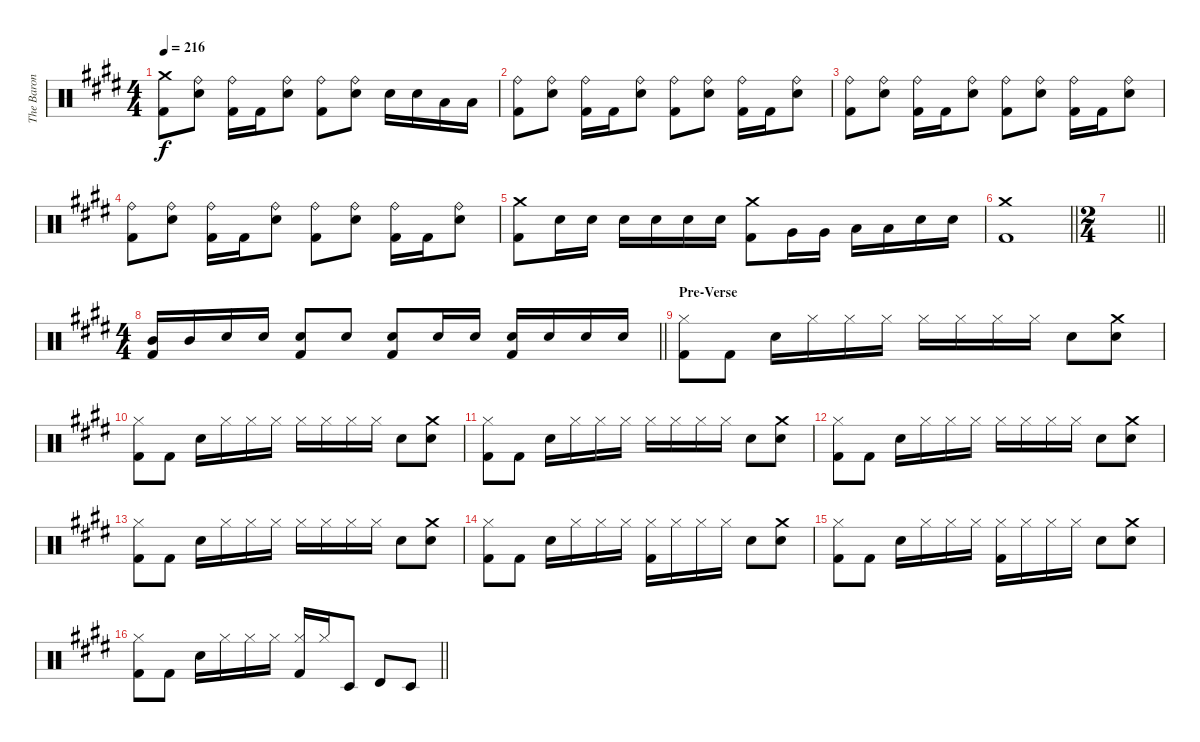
\track ("The Baron Von Tito" "The Baron ") {instrument percussion}
\staff {score}
\articulation defaults
\ts (4 4)
\tempo 216
\clef neutral
\ks e
("Crash medium (hit)" "Kick (hit) 2").8{dy f} ("Ride (bell)" "Electric Snare (hit)").8 ("Ride (bell)" "Kick (hit) 2").16 "Kick (hit) 2".16 ("Ride (bell)" "Electric Snare (hit)").8 ("Ride (bell)" "Kick (hit) 2").8 ("Ride (bell)" "Electric Snare (hit)").8 "Electric Snare (hit)".16 "Electric Snare (hit)".16 "Low Tom (hit)".16 "Low Tom (hit)".16 |
("Ride (bell)" "Kick (hit) 2").8 ("Ride (bell)" "Electric Snare (hit)").8 ("Ride (bell)" "Kick (hit) 2").16 "Kick (hit) 2".16 ("Ride (bell)" "Electric Snare (hit)").8 ("Ride (bell)" "Kick (hit) 2").8 ("Ride (bell)" "Electric Snare (hit)").8 ("Ride (bell)" "Kick (hit) 2").16 "Kick (hit) 2".16 ("Ride (bell)" "Electric Snare (hit)").8 |
("Ride (bell)" "Kick (hit) 2").8 ("Ride (bell)" "Electric Snare (hit)").8 ("Ride (bell)" "Kick (hit) 2").16 "Kick (hit) 2".16 ("Ride (bell)" "Electric Snare (hit)").8 ("Ride (bell)" "Kick (hit) 2").8 ("Ride (bell)" "Electric Snare (hit)").8 ("Ride (bell)" "Kick (hit) 2").16 "Kick (hit) 2".16 ("Ride (bell)" "Electric Snare (hit)").8 |
("Ride (bell)" "Kick (hit) 2").8 ("Ride (bell)" "Electric Snare (hit)").8 ("Ride (bell)" "Kick (hit) 2").16 "Kick (hit) 2".16 ("Ride (bell)" "Electric Snare (hit)").8 ("Ride (bell)" "Kick (hit) 2").8 ("Ride (bell)" "Electric Snare (hit)").8 ("Ride (bell)" "Kick (hit) 2").16 "Kick (hit) 2".16 ("Ride (bell)" "Electric Snare (hit)").8 |
("Crash medium (hit)" "Kick (hit) 2").8 "Electric Snare (hit)".16 "Electric Snare (hit)".16 "Electric Snare (hit)".16 "Electric Snare (hit)".16 "Electric Snare (hit)".16 "Electric Snare (hit)".16 ("Crash medium (hit)" "Kick (hit) 2").8 "Very Low Tom (hit)".16 "Very Low Tom (hit)".16 "Low Tom (hit)".16 "Low Tom (hit)".16 "Electric Snare (hit)".16 "Electric Snare (hit)".16 |
\barLineRight lightlight
("Crash medium (hit)" "Kick (hit) 2").1 |
\ts (2 4)
\barLineRight lightlight
|
\ts (4 4)
\barLineRight lightlight
("Mid Tom (hit)" "Kick (hit) 2").16 "Mid Tom (hit)".16 "Electric Snare (hit)".16 "Electric Snare (hit)".16 ("Electric Snare (hit)" "Kick (hit) 2").8 "Electric Snare (hit)".8 ("Electric Snare (hit)" "Kick (hit) 2").8 "Electric Snare (hit)".16 "Electric Snare (hit)".16 ("Electric Snare (hit)" "Kick (hit) 2").16 "Electric Snare (hit)".16 "Electric Snare (hit)".16 "Electric Snare (hit)".16 |
\section ("" "Pre-Verse")
("Hi-Hat (closed)" "Kick (hit) 2").8 "Kick (hit) 2".8 "Electric Snare (hit)".16 "Hi-Hat (closed)".16 "Hi-Hat (closed)".16 "Hi-Hat (closed)".16 "Hi-Hat (closed)".16 "Hi-Hat (closed)".16 "Hi-Hat (closed)".16 "Hi-Hat (closed)".16 "Electric Snare (hit)".8 ("Crash medium (hit)" "Electric Snare (hit)").8 |
("Hi-Hat (closed)" "Kick (hit) 2").8 "Kick (hit) 2".8 "Electric Snare (hit)".16 "Hi-Hat (closed)".16 "Hi-Hat (closed)".16 "Hi-Hat (closed)".16 "Hi-Hat (closed)".16 "Hi-Hat (closed)".16 "Hi-Hat (closed)".16 "Hi-Hat (closed)".16 "Electric Snare (hit)".8 ("Crash medium (hit)" "Electric Snare (hit)").8 |
("Hi-Hat (closed)" "Kick (hit) 2").8 "Kick (hit) 2".8 "Electric Snare (hit)".16 "Hi-Hat (closed)".16 "Hi-Hat (closed)".16 "Hi-Hat (closed)".16 "Hi-Hat (closed)".16 "Hi-Hat (closed)".16 "Hi-Hat (closed)".16 "Hi-Hat (closed)".16 "Electric Snare (hit)".8 ("Crash medium (hit)" "Electric Snare (hit)").8 |
("Hi-Hat (closed)" "Kick (hit) 2").8 "Kick (hit) 2".8 "Electric Snare (hit)".16 "Hi-Hat (closed)".16 "Hi-Hat (closed)".16 "Hi-Hat (closed)".16 "Hi-Hat (closed)".16 "Hi-Hat (closed)".16 "Hi-Hat (closed)".16 "Hi-Hat (closed)".16 "Electric Snare (hit)".8 ("Crash medium (hit)" "Electric Snare (hit)").8 |
("Hi-Hat (closed)" "Kick (hit) 2").8 "Kick (hit) 2".8 "Electric Snare (hit)".16 "Hi-Hat (closed)".16 "Hi-Hat (closed)".16 "Hi-Hat (closed)".16 "Hi-Hat (closed)".16 "Hi-Hat (closed)".16 "Hi-Hat (closed)".16 "Hi-Hat (closed)".16 "Electric Snare (hit)".8 ("Crash medium (hit)" "Electric Snare (hit)").8 |
("Hi-Hat (closed)" "Kick (hit) 2").8 "Kick (hit) 2".8 "Electric Snare (hit)".16 "Hi-Hat (closed)".16 "Hi-Hat (closed)".16 "Hi-Hat (closed)".16 ("Hi-Hat (closed)" "Kick (hit) 2").16 "Hi-Hat (closed)".16 "Hi-Hat (closed)".16 "Hi-Hat (closed)".16 "Electric Snare (hit)".8 ("Crash medium (hit)" "Electric Snare (hit)").8 |
("Hi-Hat (closed)" "Kick (hit) 2").8 "Kick (hit) 2".8 "Electric Snare (hit)".16 "Hi-Hat (closed)".16 "Hi-Hat (closed)".16 "Hi-Hat (closed)".16 ("Hi-Hat (closed)" "Kick (hit) 2").16 "Hi-Hat (closed)".16 "Hi-Hat (closed)".16 "Hi-Hat (closed)".16 "Electric Snare (hit)".8 ("Crash medium (hit)" "Electric Snare (hit)").8 |
\barLineRight lightlight
("Hi-Hat (closed)" "Kick (hit) 2").8 "Kick (hit) 2".8 "Electric Snare (hit)".16 "Hi-Hat (closed)".16 "Hi-Hat (closed)".16 "Hi-Hat (closed)".16 ("Hi-Hat (closed)" "Kick (hit) 2").16 "Hi-Hat (closed)".16 "Timbale low (hit)".8 "Timbale high (hit)".8 "Timbale low (hit)".8
